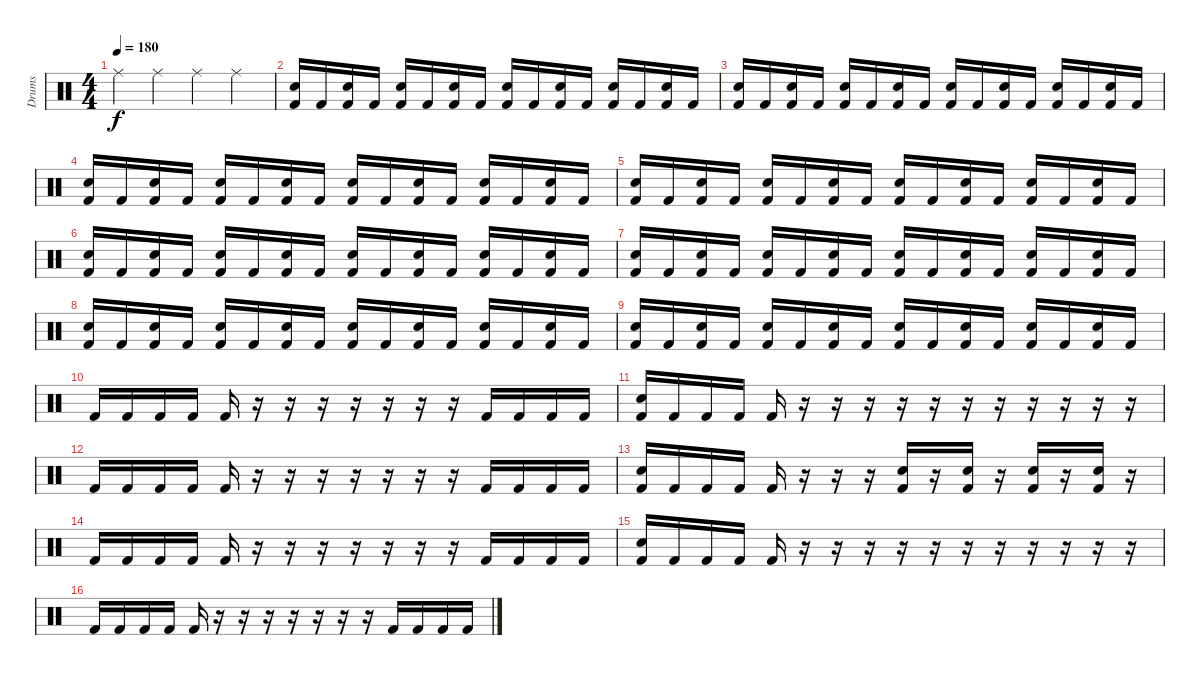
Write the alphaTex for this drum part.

\track ("Drums" "Drums") {instrument percussion}
\staff {score}
\articulation defaults
\ts (4 4)
\tempo 180
\clef neutral
\ks c "Ride (middle)".4{dy f} "Ride (middle)".4 "Ride (middle)".4 "Ride (middle)".4
|
("Electric Snare (hit)" "Kick (hit) 2").16 "Kick (hit) 2".16 ("Electric Snare (hit)" "Kick (hit) 2").16 "Kick (hit) 2".16 ("Electric Snare (hit)" "Kick (hit) 2").16 "Kick (hit) 2".16 ("Electric Snare (hit)" "Kick (hit) 2").16 "Kick (hit) 2".16 ("Electric Snare (hit)" "Kick (hit) 2").16 "Kick (hit) 2".16 ("Electric Snare (hit)" "Kick (hit) 2").16 "Kick (hit) 2".16 ("Electric Snare (hit)" "Kick (hit) 2").16 "Kick (hit) 2".16 ("Electric Snare (hit)" "Kick (hit) 2").16 "Kick (hit) 2".16 |
("Electric Snare (hit)" "Kick (hit) 2").16 "Kick (hit) 2".16 ("Electric Snare (hit)" "Kick (hit) 2").16 "Kick (hit) 2".16 ("Electric Snare (hit)" "Kick (hit) 2").16 "Kick (hit) 2".16 ("Electric Snare (hit)" "Kick (hit) 2").16 "Kick (hit) 2".16 ("Electric Snare (hit)" "Kick (hit) 2").16 "Kick (hit) 2".16 ("Electric Snare (hit)" "Kick (hit) 2").16 "Kick (hit) 2".16 ("Electric Snare (hit)" "Kick (hit) 2").16 "Kick (hit) 2".16 ("Electric Snare (hit)" "Kick (hit) 2").16 "Kick (hit) 2".16 |
("Electric Snare (hit)" "Kick (hit) 2").16 "Kick (hit) 2".16 ("Electric Snare (hit)" "Kick (hit) 2").16 "Kick (hit) 2".16 ("Electric Snare (hit)" "Kick (hit) 2").16 "Kick (hit) 2".16 ("Electric Snare (hit)" "Kick (hit) 2").16 "Kick (hit) 2".16 ("Electric Snare (hit)" "Kick (hit) 2").16 "Kick (hit) 2".16 ("Electric Snare (hit)" "Kick (hit) 2").16 "Kick (hit) 2".16 ("Electric Snare (hit)" "Kick (hit) 2").16 "Kick (hit) 2".16 ("Electric Snare (hit)" "Kick (hit) 2").16 "Kick (hit) 2".16 |
("Electric Snare (hit)" "Kick (hit) 2").16 "Kick (hit) 2".16 ("Electric Snare (hit)" "Kick (hit) 2").16 "Kick (hit) 2".16 ("Electric Snare (hit)" "Kick (hit) 2").16 "Kick (hit) 2".16 ("Electric Snare (hit)" "Kick (hit) 2").16 "Kick (hit) 2".16 ("Electric Snare (hit)" "Kick (hit) 2").16 "Kick (hit) 2".16 ("Electric Snare (hit)" "Kick (hit) 2").16 "Kick (hit) 2".16 ("Electric Snare (hit)" "Kick (hit) 2").16 "Kick (hit) 2".16 ("Electric Snare (hit)" "Kick (hit) 2").16 "Kick (hit) 2".16 |
("Electric Snare (hit)" "Kick (hit) 2").16 "Kick (hit) 2".16 ("Electric Snare (hit)" "Kick (hit) 2").16 "Kick (hit) 2".16 ("Electric Snare (hit)" "Kick (hit) 2").16 "Kick (hit) 2".16 ("Electric Snare (hit)" "Kick (hit) 2").16 "Kick (hit) 2".16 ("Electric Snare (hit)" "Kick (hit) 2").16 "Kick (hit) 2".16 ("Electric Snare (hit)" "Kick (hit) 2").16 "Kick (hit) 2".16 ("Electric Snare (hit)" "Kick (hit) 2").16 "Kick (hit) 2".16 ("Electric Snare (hit)" "Kick (hit) 2").16 "Kick (hit) 2".16 |
("Electric Snare (hit)" "Kick (hit) 2").16 "Kick (hit) 2".16 ("Electric Snare (hit)" "Kick (hit) 2").16 "Kick (hit) 2".16 ("Electric Snare (hit)" "Kick (hit) 2").16 "Kick (hit) 2".16 ("Electric Snare (hit)" "Kick (hit) 2").16 "Kick (hit) 2".16 ("Electric Snare (hit)" "Kick (hit) 2").16 "Kick (hit) 2".16 ("Electric Snare (hit)" "Kick (hit) 2").16 "Kick (hit) 2".16 ("Electric Snare (hit)" "Kick (hit) 2").16 "Kick (hit) 2".16 ("Electric Snare (hit)" "Kick (hit) 2").16 "Kick (hit) 2".16 |
("Electric Snare (hit)" "Kick (hit) 2").16 "Kick (hit) 2".16 ("Electric Snare (hit)" "Kick (hit) 2").16 "Kick (hit) 2".16 ("Electric Snare (hit)" "Kick (hit) 2").16 "Kick (hit) 2".16 ("Electric Snare (hit)" "Kick (hit) 2").16 "Kick (hit) 2".16 ("Electric Snare (hit)" "Kick (hit) 2").16 "Kick (hit) 2".16 ("Electric Snare (hit)" "Kick (hit) 2").16 "Kick (hit) 2".16 ("Electric Snare (hit)" "Kick (hit) 2").16 "Kick (hit) 2".16 ("Electric Snare (hit)" "Kick (hit) 2").16 "Kick (hit) 2".16 |
("Electric Snare (hit)" "Kick (hit) 2").16 "Kick (hit) 2".16 ("Electric Snare (hit)" "Kick (hit) 2").16 "Kick (hit) 2".16 ("Electric Snare (hit)" "Kick (hit) 2").16 "Kick (hit) 2".16 ("Electric Snare (hit)" "Kick (hit) 2").16 "Kick (hit) 2".16 ("Electric Snare (hit)" "Kick (hit) 2").16 "Kick (hit) 2".16 ("Electric Snare (hit)" "Kick (hit) 2").16 "Kick (hit) 2".16 ("Electric Snare (hit)" "Kick (hit) 2").16 "Kick (hit) 2".16 ("Electric Snare (hit)" "Kick (hit) 2").16 "Kick (hit) 2".16 |
"Kick (hit) 2".16 "Kick (hit) 2".16 "Kick (hit) 2".16 "Kick (hit) 2".16 "Kick (hit) 2".16 r.16 r.16 r.16 r.16 r.16 r.16 r.16 "Kick (hit) 2".16 "Kick (hit) 2".16 "Kick (hit) 2".16 "Kick (hit) 2".16 |
("Electric Snare (hit)" "Kick (hit) 2").16 "Kick (hit) 2".16 "Kick (hit) 2".16 "Kick (hit) 2".16 "Kick (hit) 2".16 r.16 r.16 r.16 r.16 r.16 r.16 r.16 r.16 r.16 r.16 r.16 |
"Kick (hit) 2".16 "Kick (hit) 2".16 "Kick (hit) 2".16 "Kick (hit) 2".16 "Kick (hit) 2".16 r.16 r.16 r.16 r.16 r.16 r.16 r.16 "Kick (hit) 2".16 "Kick (hit) 2".16 "Kick (hit) 2".16 "Kick (hit) 2".16 |
("Electric Snare (hit)" "Kick (hit) 2").16 "Kick (hit) 2".16 "Kick (hit) 2".16 "Kick (hit) 2".16 "Kick (hit) 2".16 r.16 r.16 r.16 ("Electric Snare (hit)" "Kick (hit) 2").16 r.16 ("Electric Snare (hit)" "Kick (hit) 2").16 r.16 ("Electric Snare (hit)" "Kick (hit) 2").16 r.16 ("Electric Snare (hit)" "Kick (hit) 2").16 r.16 |
"Kick (hit) 2".16 "Kick (hit) 2".16 "Kick (hit) 2".16 "Kick (hit) 2".16 "Kick (hit) 2".16 r.16 r.16 r.16 r.16 r.16 r.16 r.16 "Kick (hit) 2".16 "Kick (hit) 2".16 "Kick (hit) 2".16 "Kick (hit) 2".16 |
("Electric Snare (hit)" "Kick (hit) 2").16 "Kick (hit) 2".16 "Kick (hit) 2".16 "Kick (hit) 2".16 "Kick (hit) 2".16 r.16 r.16 r.16 r.16 r.16 r.16 r.16 r.16 r.16 r.16 r.16 |
"Kick (hit) 2".16 "Kick (hit) 2".16 "Kick (hit) 2".16 "Kick (hit) 2".16 "Kick (hit) 2".16 r.16 r.16 r.16 r.16 r.16 r.16 r.16 "Kick (hit) 2".16 "Kick (hit) 2".16 "Kick (hit) 2".16 "Kick (hit) 2".16
